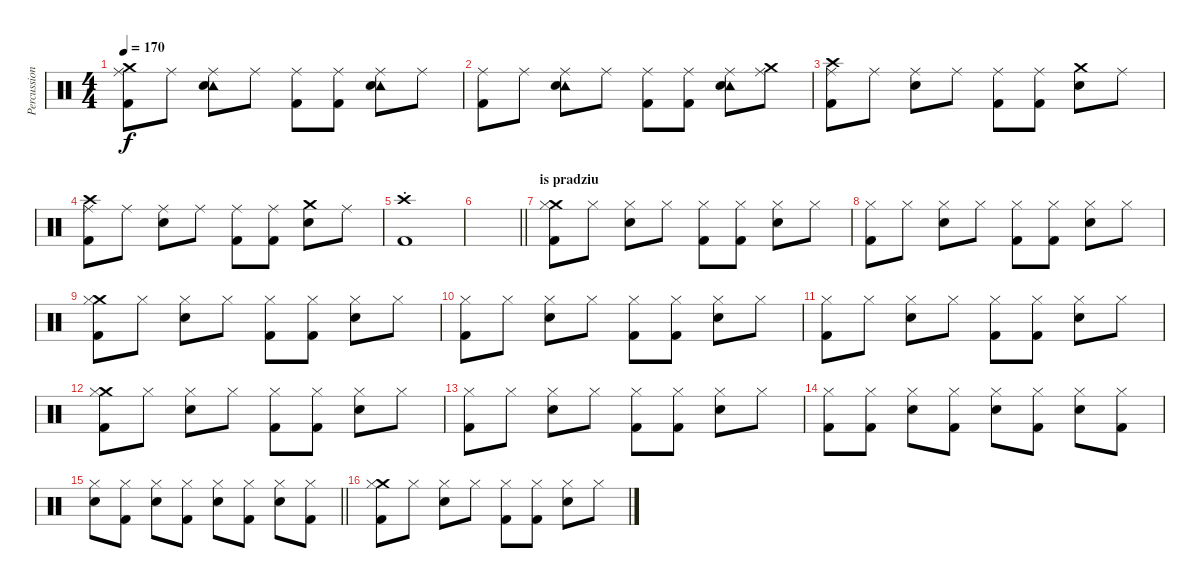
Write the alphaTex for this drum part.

\track ("Percussion" "Percussion") {instrument percussion}
\staff {score}
\articulation defaults
\ts (4 4)
\tempo 170
\clef neutral
\ks c
("Crash medium (hit)" "Ride (middle)" "Kick (hit) 2").8{dy f} "Ride (middle)".8 ("Ride (middle)" "Tambourine (hit)" "Snare (hit) 2").8 "Ride (middle)".8 ("Ride (middle)" "Kick (hit) 2").8 ("Ride (middle)" "Kick (hit) 2").8 ("Ride (middle)" "Tambourine (hit)" "Snare (hit) 2").8 "Ride (middle)".8 |
("Ride (middle)" "Kick (hit) 2").8 "Ride (middle)".8 ("Ride (middle)" "Tambourine (hit)" "Snare (hit) 2").8 "Ride (middle)".8 ("Ride (middle)" "Kick (hit) 2").8 ("Ride (middle)" "Kick (hit) 2").8 ("Ride (middle)" "Tambourine (hit)" "Snare (hit) 2").8 ("Crash medium (hit)" "Ride (middle)").8 |
("Crash high (hit)" "Ride (middle)" "Kick (hit) 2").8 "Ride (middle)".8 ("Ride (middle)" "Snare (hit) 2").8 "Ride (middle)".8 ("Ride (middle)" "Kick (hit) 2").8 ("Ride (middle)" "Kick (hit) 2").8 ("Crash medium (hit)" "Snare (hit) 2").8 "Ride (middle)".8 |
("Crash high (hit)" "Ride (middle)" "Kick (hit) 2").8 "Ride (middle)".8 ("Ride (middle)" "Snare (hit) 2").8 "Ride (middle)".8 ("Ride (middle)" "Kick (hit) 2").8 ("Ride (middle)" "Kick (hit) 2").8 ("Crash medium (hit)" "Snare (hit) 2").8 "Ride (middle)".8 |
("Crash high (hit)"{st} "Kick (hit) 2").1 |
\barLineRight lightlight
|
\section ("" "is pradziu")
("Crash medium (hit)" "Hi-Hat (closed)" "Kick (hit) 2").8 "Hi-Hat (closed)".8 ("Hi-Hat (closed)" "Snare (hit) 2").8 "Hi-Hat (closed)".8 ("Hi-Hat (closed)" "Kick (hit) 2").8 ("Hi-Hat (closed)" "Kick (hit) 2").8 ("Hi-Hat (closed)" "Snare (hit) 2").8 "Hi-Hat (closed)".8 |
("Hi-Hat (closed)" "Kick (hit) 2").8 "Hi-Hat (closed)".8 ("Hi-Hat (closed)" "Snare (hit) 2").8 "Hi-Hat (closed)".8 ("Hi-Hat (closed)" "Kick (hit) 2").8 ("Hi-Hat (closed)" "Kick (hit) 2").8 ("Hi-Hat (closed)" "Snare (hit) 2").8 "Hi-Hat (closed)".8 |
("Crash medium (hit)" "Hi-Hat (closed)" "Kick (hit) 2").8 "Hi-Hat (closed)".8 ("Hi-Hat (closed)" "Snare (hit) 2").8 "Hi-Hat (closed)".8 ("Hi-Hat (closed)" "Kick (hit) 2").8 ("Hi-Hat (closed)" "Kick (hit) 2").8 ("Hi-Hat (closed)" "Snare (hit) 2").8 "Hi-Hat (closed)".8 |
("Hi-Hat (closed)" "Kick (hit) 2").8 "Hi-Hat (closed)".8 ("Hi-Hat (closed)" "Snare (hit) 2").8 "Hi-Hat (closed)".8 ("Hi-Hat (closed)" "Kick (hit) 2").8 ("Hi-Hat (closed)" "Kick (hit) 2").8 ("Hi-Hat (closed)" "Snare (hit) 2").8 "Hi-Hat (closed)".8 |
("Hi-Hat (closed)" "Kick (hit) 2").8 "Hi-Hat (closed)".8 ("Hi-Hat (closed)" "Snare (hit) 2").8 "Hi-Hat (closed)".8 ("Hi-Hat (closed)" "Kick (hit) 2").8 ("Hi-Hat (closed)" "Kick (hit) 2").8 ("Hi-Hat (closed)" "Snare (hit) 2").8 "Hi-Hat (closed)".8 |
("Crash medium (hit)" "Hi-Hat (closed)" "Kick (hit) 2").8 "Hi-Hat (closed)".8 ("Hi-Hat (closed)" "Snare (hit) 2").8 "Hi-Hat (closed)".8 ("Hi-Hat (closed)" "Kick (hit) 2").8 ("Hi-Hat (closed)" "Kick (hit) 2").8 ("Hi-Hat (closed)" "Snare (hit) 2").8 "Hi-Hat (closed)".8 |
("Hi-Hat (closed)" "Kick (hit) 2").8 "Hi-Hat (closed)".8 ("Hi-Hat (closed)" "Snare (hit) 2").8 "Hi-Hat (closed)".8 ("Hi-Hat (closed)" "Kick (hit) 2").8 ("Hi-Hat (closed)" "Kick (hit) 2").8 ("Hi-Hat (closed)" "Snare (hit) 2").8 "Hi-Hat (closed)".8 |
("Hi-Hat (closed)" "Kick (hit) 2").8 ("Hi-Hat (closed)" "Kick (hit) 2").8 ("Hi-Hat (closed)" "Snare (hit) 2").8 ("Hi-Hat (closed)" "Kick (hit) 2").8 ("Hi-Hat (closed)" "Snare (hit) 2").8 ("Hi-Hat (closed)" "Kick (hit) 2").8 ("Hi-Hat (closed)" "Snare (hit) 2").8 ("Hi-Hat (closed)" "Kick (hit) 2").8 |
\barLineRight lightlight
("Hi-Hat (closed)" "Snare (hit) 2").8 ("Hi-Hat (closed)" "Kick (hit) 2").8 ("Hi-Hat (closed)" "Snare (hit) 2").8 ("Hi-Hat (closed)" "Kick (hit) 2").8 ("Hi-Hat (closed)" "Snare (hit) 2").8 ("Hi-Hat (closed)" "Kick (hit) 2").8 ("Hi-Hat (closed)" "Snare (hit) 2").8 ("Hi-Hat (closed)" "Kick (hit) 2").8 |
("Crash medium (hit)" "Hi-Hat (closed)" "Kick (hit) 2").8 "Hi-Hat (closed)".8 ("Hi-Hat (closed)" "Snare (hit) 2").8 "Hi-Hat (closed)".8 ("Hi-Hat (closed)" "Kick (hit) 2").8 ("Hi-Hat (closed)" "Kick (hit) 2").8 ("Hi-Hat (closed)" "Snare (hit) 2").8 "Hi-Hat (closed)".8
